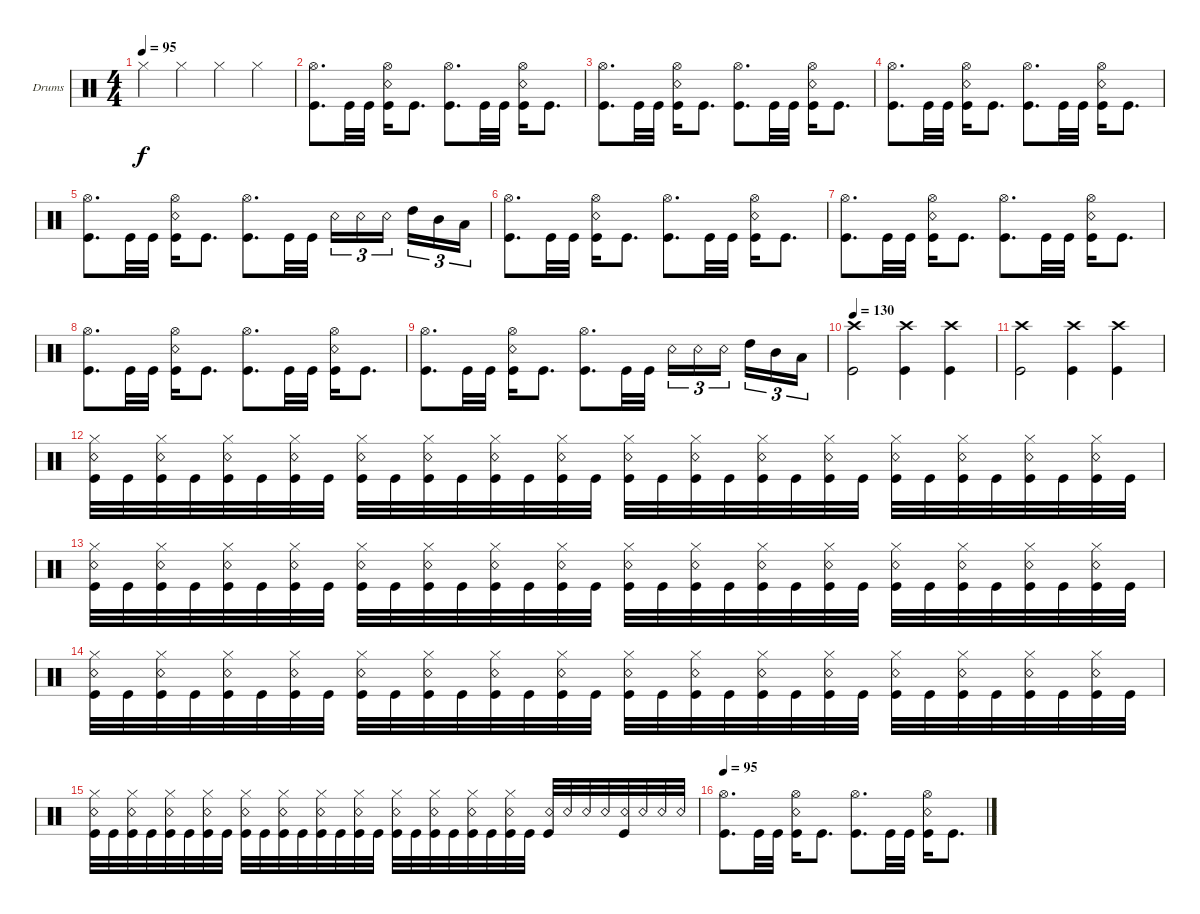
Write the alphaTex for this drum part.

\defaultSystemsLayout 4
\bracketExtendMode groupsimilarinstruments
\firstSystemTrackNameOrientation horizontal
\otherSystemsTrackNameOrientation horizontal
\track ("Drumkit" "Drums") {instrument percussion}
\staff {score}
\articulation defaults
\ts (4 4)
\tempo 95
\clef neutral
\ks c "Hi-Hat (closed)".4{dy f} "Hi-Hat (closed)".4 "Hi-Hat (closed)".4 "Hi-Hat (closed)".4
|
("Hi-Hat (open)" "Kick (hit)").8{d} "Kick (hit)".32 "Kick (hit)".32 ("Kick (hit)" "Snare (rim shot)" "Hi-Hat (open)").16 "Kick (hit)".8{d} ("Hi-Hat (open)" "Kick (hit)").8{d} "Kick (hit)".32 "Kick (hit)".32 ("Kick (hit)" "Snare (rim shot)" "Hi-Hat (open)").16 "Kick (hit)".8{d} |
("Hi-Hat (open)" "Kick (hit)").8{d} "Kick (hit)".32 "Kick (hit)".32 ("Kick (hit)" "Snare (rim shot)" "Hi-Hat (open)").16 "Kick (hit)".8{d} ("Hi-Hat (open)" "Kick (hit)").8{d} "Kick (hit)".32 "Kick (hit)".32 ("Kick (hit)" "Snare (rim shot)" "Hi-Hat (open)").16 "Kick (hit)".8{d} |
("Hi-Hat (open)" "Kick (hit)").8{d} "Kick (hit)".32 "Kick (hit)".32 ("Kick (hit)" "Snare (rim shot)" "Hi-Hat (open)").16 "Kick (hit)".8{d} ("Hi-Hat (open)" "Kick (hit)").8{d} "Kick (hit)".32 "Kick (hit)".32 ("Kick (hit)" "Snare (rim shot)" "Hi-Hat (open)").16 "Kick (hit)".8{d} |
("Hi-Hat (open)" "Kick (hit)").8{d} "Kick (hit)".32 "Kick (hit)".32 ("Kick (hit)" "Snare (rim shot)" "Hi-Hat (open)").16 "Kick (hit)".8{d} ("Hi-Hat (open)" "Kick (hit)").8{d} "Kick (hit)".32 "Kick (hit)".32 "Snare (rim shot)".16{tu (3 2)} "Snare (rim shot)".16{tu (3 2)} "Snare (rim shot)".16{tu (3 2)} "High Tom (hit)".16{tu (3 2)} "Mid Tom (hit)".16{tu (3 2)} "Low Tom (hit)".16{tu (3 2)} |
("Hi-Hat (open)" "Kick (hit)").8{d} "Kick (hit)".32 "Kick (hit)".32 ("Kick (hit)" "Snare (rim shot)" "Hi-Hat (open)").16 "Kick (hit)".8{d} ("Hi-Hat (open)" "Kick (hit)").8{d} "Kick (hit)".32 "Kick (hit)".32 ("Kick (hit)" "Snare (rim shot)" "Hi-Hat (open)").16 "Kick (hit)".8{d} |
("Hi-Hat (open)" "Kick (hit)").8{d} "Kick (hit)".32 "Kick (hit)".32 ("Kick (hit)" "Snare (rim shot)" "Hi-Hat (open)").16 "Kick (hit)".8{d} ("Hi-Hat (open)" "Kick (hit)").8{d} "Kick (hit)".32 "Kick (hit)".32 ("Kick (hit)" "Snare (rim shot)" "Hi-Hat (open)").16 "Kick (hit)".8{d} |
("Hi-Hat (open)" "Kick (hit)").8{d} "Kick (hit)".32 "Kick (hit)".32 ("Kick (hit)" "Snare (rim shot)" "Hi-Hat (open)").16 "Kick (hit)".8{d} ("Hi-Hat (open)" "Kick (hit)").8{d} "Kick (hit)".32 "Kick (hit)".32 ("Kick (hit)" "Snare (rim shot)" "Hi-Hat (open)").16 "Kick (hit)".8{d} |
("Hi-Hat (open)" "Kick (hit)").8{d} "Kick (hit)".32 "Kick (hit)".32 ("Kick (hit)" "Snare (rim shot)" "Hi-Hat (open)").16 "Kick (hit)".8{d} ("Hi-Hat (open)" "Kick (hit)").8{d} "Kick (hit)".32 "Kick (hit)".32 "Snare (rim shot)".16{tu (3 2)} "Snare (rim shot)".16{tu (3 2)} "Snare (rim shot)".16{tu (3 2)} "High Tom (hit)".16{tu (3 2)} "Mid Tom (hit)".16{tu (3 2)} "Low Tom (hit)".16{tu (3 2)} |
\tempo 130
("Kick (hit)" "Crash high (hit)").2 ("Kick (hit)" "Crash high (hit)").4 ("Kick (hit)" "Crash high (hit)").4 |
("Kick (hit)" "Crash high (hit)").2 ("Kick (hit)" "Crash high (hit)").4 ("Kick (hit)" "Crash high (hit)").4 |
("Kick (hit)" "Snare (rim shot)" "Hi-Hat (closed)").32 "Kick (hit)".32 ("Kick (hit)" "Snare (rim shot)" "Hi-Hat (closed)").32 "Kick (hit)".32 ("Kick (hit)" "Snare (rim shot)" "Hi-Hat (closed)").32 "Kick (hit)".32 ("Kick (hit)" "Snare (rim shot)" "Hi-Hat (closed)").32 "Kick (hit)".32 ("Kick (hit)" "Snare (rim shot)" "Hi-Hat (closed)").32 "Kick (hit)".32 ("Kick (hit)" "Snare (rim shot)" "Hi-Hat (closed)").32 "Kick (hit)".32 ("Kick (hit)" "Snare (rim shot)" "Hi-Hat (closed)").32 "Kick (hit)".32 ("Kick (hit)" "Snare (rim shot)" "Hi-Hat (closed)").32 "Kick (hit)".32 ("Kick (hit)" "Snare (rim shot)" "Hi-Hat (closed)").32 "Kick (hit)".32 ("Kick (hit)" "Snare (rim shot)" "Hi-Hat (closed)").32 "Kick (hit)".32 ("Kick (hit)" "Snare (rim shot)" "Hi-Hat (closed)").32 "Kick (hit)".32 ("Kick (hit)" "Snare (rim shot)" "Hi-Hat (closed)").32 "Kick (hit)".32 ("Kick (hit)" "Snare (rim shot)" "Hi-Hat (closed)").32 "Kick (hit)".32 ("Kick (hit)" "Snare (rim shot)" "Hi-Hat (closed)").32 "Kick (hit)".32 ("Kick (hit)" "Snare (rim shot)" "Hi-Hat (closed)").32 "Kick (hit)".32 ("Kick (hit)" "Snare (rim shot)" "Hi-Hat (closed)").32 "Kick (hit)".32 |
("Kick (hit)" "Snare (rim shot)" "Hi-Hat (closed)").32 "Kick (hit)".32 ("Kick (hit)" "Snare (rim shot)" "Hi-Hat (closed)").32 "Kick (hit)".32 ("Kick (hit)" "Snare (rim shot)" "Hi-Hat (closed)").32 "Kick (hit)".32 ("Kick (hit)" "Snare (rim shot)" "Hi-Hat (closed)").32 "Kick (hit)".32 ("Kick (hit)" "Snare (rim shot)" "Hi-Hat (closed)").32 "Kick (hit)".32 ("Kick (hit)" "Snare (rim shot)" "Hi-Hat (closed)").32 "Kick (hit)".32 ("Kick (hit)" "Snare (rim shot)" "Hi-Hat (closed)").32 "Kick (hit)".32 ("Kick (hit)" "Snare (rim shot)" "Hi-Hat (closed)").32 "Kick (hit)".32 ("Kick (hit)" "Snare (rim shot)" "Hi-Hat (closed)").32 "Kick (hit)".32 ("Kick (hit)" "Snare (rim shot)" "Hi-Hat (closed)").32 "Kick (hit)".32 ("Kick (hit)" "Snare (rim shot)" "Hi-Hat (closed)").32 "Kick (hit)".32 ("Kick (hit)" "Snare (rim shot)" "Hi-Hat (closed)").32 "Kick (hit)".32 ("Kick (hit)" "Snare (rim shot)" "Hi-Hat (closed)").32 "Kick (hit)".32 ("Kick (hit)" "Snare (rim shot)" "Hi-Hat (closed)").32 "Kick (hit)".32 ("Kick (hit)" "Snare (rim shot)" "Hi-Hat (closed)").32 "Kick (hit)".32 ("Kick (hit)" "Snare (rim shot)" "Hi-Hat (closed)").32 "Kick (hit)".32 |
("Kick (hit)" "Snare (rim shot)" "Hi-Hat (closed)").32 "Kick (hit)".32 ("Kick (hit)" "Snare (rim shot)" "Hi-Hat (closed)").32 "Kick (hit)".32 ("Kick (hit)" "Snare (rim shot)" "Hi-Hat (closed)").32 "Kick (hit)".32 ("Kick (hit)" "Snare (rim shot)" "Hi-Hat (closed)").32 "Kick (hit)".32 ("Kick (hit)" "Snare (rim shot)" "Hi-Hat (closed)").32 "Kick (hit)".32 ("Kick (hit)" "Snare (rim shot)" "Hi-Hat (closed)").32 "Kick (hit)".32 ("Kick (hit)" "Snare (rim shot)" "Hi-Hat (closed)").32 "Kick (hit)".32 ("Kick (hit)" "Snare (rim shot)" "Hi-Hat (closed)").32 "Kick (hit)".32 ("Kick (hit)" "Snare (rim shot)" "Hi-Hat (closed)").32 "Kick (hit)".32 ("Kick (hit)" "Snare (rim shot)" "Hi-Hat (closed)").32 "Kick (hit)".32 ("Kick (hit)" "Snare (rim shot)" "Hi-Hat (closed)").32 "Kick (hit)".32 ("Kick (hit)" "Snare (rim shot)" "Hi-Hat (closed)").32 "Kick (hit)".32 ("Kick (hit)" "Snare (rim shot)" "Hi-Hat (closed)").32 "Kick (hit)".32 ("Kick (hit)" "Snare (rim shot)" "Hi-Hat (closed)").32 "Kick (hit)".32 ("Kick (hit)" "Snare (rim shot)" "Hi-Hat (closed)").32 "Kick (hit)".32 ("Kick (hit)" "Snare (rim shot)" "Hi-Hat (closed)").32 "Kick (hit)".32 |
("Kick (hit)" "Snare (rim shot)" "Hi-Hat (closed)").32 "Kick (hit)".32 ("Kick (hit)" "Snare (rim shot)" "Hi-Hat (closed)").32 "Kick (hit)".32 ("Kick (hit)" "Snare (rim shot)" "Hi-Hat (closed)").32 "Kick (hit)".32 ("Kick (hit)" "Snare (rim shot)" "Hi-Hat (closed)").32 "Kick (hit)".32 ("Kick (hit)" "Snare (rim shot)" "Hi-Hat (closed)").32 "Kick (hit)".32 ("Kick (hit)" "Snare (rim shot)" "Hi-Hat (closed)").32 "Kick (hit)".32 ("Kick (hit)" "Snare (rim shot)" "Hi-Hat (closed)").32 "Kick (hit)".32 ("Kick (hit)" "Snare (rim shot)" "Hi-Hat (closed)").32 "Kick (hit)".32 ("Kick (hit)" "Snare (rim shot)" "Hi-Hat (closed)").32 "Kick (hit)".32 ("Kick (hit)" "Snare (rim shot)" "Hi-Hat (closed)").32 "Kick (hit)".32 ("Kick (hit)" "Snare (rim shot)" "Hi-Hat (closed)").32 "Kick (hit)".32 ("Kick (hit)" "Snare (rim shot)" "Hi-Hat (closed)").32 "Kick (hit)".32 ("Snare (rim shot)" "Kick (hit)").32 "Snare (rim shot)".32 "Snare (rim shot)".32 "Snare (rim shot)".32 ("Snare (rim shot)" "Kick (hit)").32 "Snare (rim shot)".32 "Snare (rim shot)".32 "Snare (rim shot)".32 |
\tempo 95
("Hi-Hat (open)" "Kick (hit)").8{d} "Kick (hit)".32 "Kick (hit)".32 ("Kick (hit)" "Snare (rim shot)" "Hi-Hat (open)").16 "Kick (hit)".8{d} ("Hi-Hat (open)" "Kick (hit)").8{d} "Kick (hit)".32 "Kick (hit)".32 ("Kick (hit)" "Snare (rim shot)" "Hi-Hat (open)").16 "Kick (hit)".8{d}
